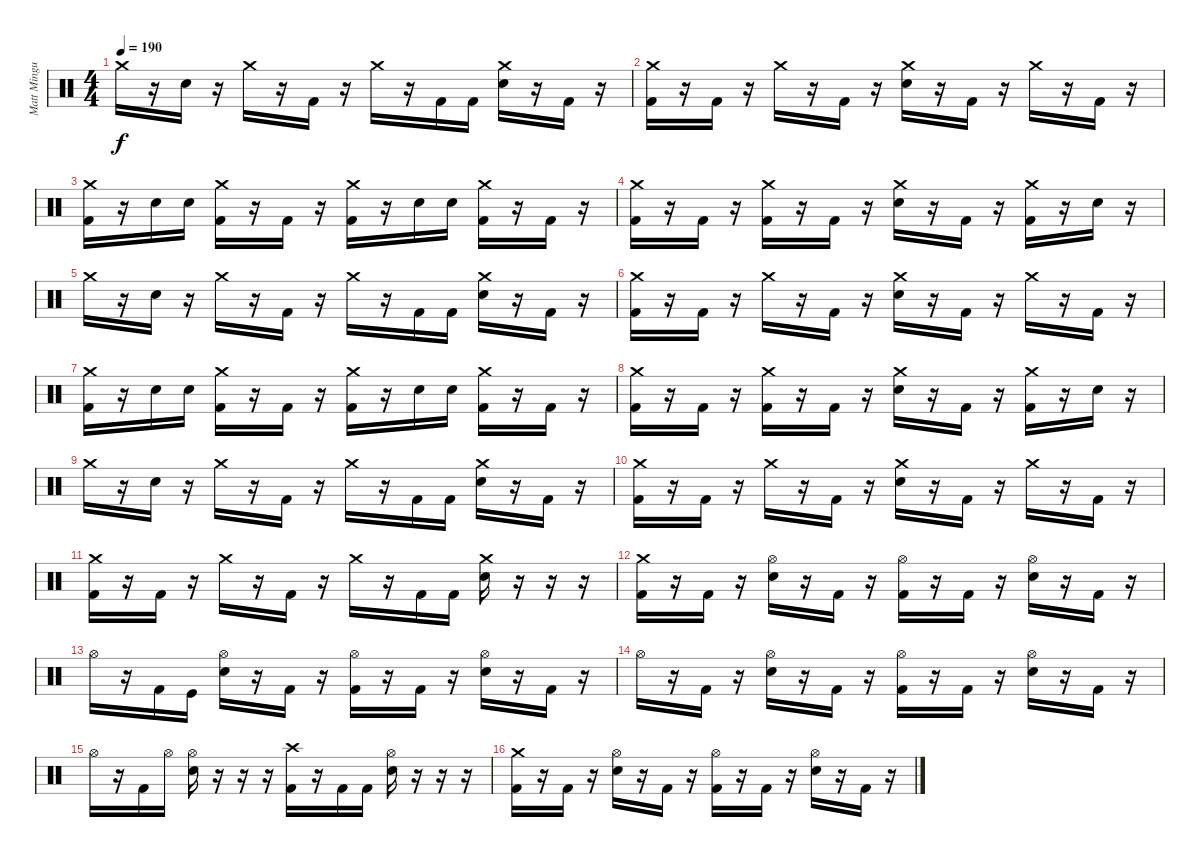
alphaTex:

\track ("Matt Mingus" "Matt Mingu") {instrument percussion}
\staff {score}
\articulation defaults
\ts (4 4)
\tempo 190
\clef neutral
\ks c "Crash medium (hit)".16{dy f}
r.16 "Electric Snare (hit)".16 r.16 "Crash medium (hit)".16 r.16 "Kick (hit) 2".16 r.16 "Crash medium (hit)".16 r.16 "Kick (hit) 2".16 "Kick (hit) 2".16 ("Crash medium (hit)" "Electric Snare (hit)").16 r.16 "Kick (hit) 2".16 r.16 |
("Crash medium (hit)" "Kick (hit) 2").16 r.16 "Kick (hit) 2".16 r.16 "Crash medium (hit)".16 r.16 "Kick (hit) 2".16 r.16 ("Crash medium (hit)" "Electric Snare (hit)").16 r.16 "Kick (hit) 2".16 r.16 "Crash medium (hit)".16 r.16 "Kick (hit) 2".16 r.16 |
("Crash medium (hit)" "Kick (hit) 2").16 r.16 "Electric Snare (hit)".16 "Electric Snare (hit)".16 ("Crash medium (hit)" "Kick (hit) 2").16 r.16 "Kick (hit) 2".16 r.16 ("Crash medium (hit)" "Kick (hit) 2").16 r.16 "Electric Snare (hit)".16 "Electric Snare (hit)".16 ("Crash medium (hit)" "Kick (hit) 2").16 r.16 "Kick (hit) 2".16 r.16 |
("Crash medium (hit)" "Kick (hit) 2").16 r.16 "Kick (hit) 2".16 r.16 ("Crash medium (hit)" "Kick (hit) 2").16 r.16 "Kick (hit) 2".16 r.16 ("Crash medium (hit)" "Electric Snare (hit)").16 r.16 "Kick (hit) 2".16 r.16 ("Crash medium (hit)" "Kick (hit) 2").16 r.16 "Electric Snare (hit)".16 r.16 |
"Crash medium (hit)".16 r.16 "Electric Snare (hit)".16 r.16 "Crash medium (hit)".16 r.16 "Kick (hit) 2".16 r.16 "Crash medium (hit)".16 r.16 "Kick (hit) 2".16 "Kick (hit) 2".16 ("Crash medium (hit)" "Electric Snare (hit)").16 r.16 "Kick (hit) 2".16 r.16 |
("Crash medium (hit)" "Kick (hit) 2").16 r.16 "Kick (hit) 2".16 r.16 "Crash medium (hit)".16 r.16 "Kick (hit) 2".16 r.16 ("Crash medium (hit)" "Electric Snare (hit)").16 r.16 "Kick (hit) 2".16 r.16 "Crash medium (hit)".16 r.16 "Kick (hit) 2".16 r.16 |
("Crash medium (hit)" "Kick (hit) 2").16 r.16 "Electric Snare (hit)".16 "Electric Snare (hit)".16 ("Crash medium (hit)" "Kick (hit) 2").16 r.16 "Kick (hit) 2".16 r.16 ("Crash medium (hit)" "Kick (hit) 2").16 r.16 "Electric Snare (hit)".16 "Electric Snare (hit)".16 ("Crash medium (hit)" "Kick (hit) 2").16 r.16 "Kick (hit) 2".16 r.16 |
("Crash medium (hit)" "Kick (hit) 2").16 r.16 "Kick (hit) 2".16 r.16 ("Crash medium (hit)" "Kick (hit) 2").16 r.16 "Kick (hit) 2".16 r.16 ("Crash medium (hit)" "Electric Snare (hit)").16 r.16 "Kick (hit) 2".16 r.16 ("Crash medium (hit)" "Kick (hit) 2").16 r.16 "Electric Snare (hit)".16 r.16 |
"Crash medium (hit)".16 r.16 "Electric Snare (hit)".16 r.16 "Crash medium (hit)".16 r.16 "Kick (hit) 2".16 r.16 "Crash medium (hit)".16 r.16 "Kick (hit) 2".16 "Kick (hit) 2".16 ("Crash medium (hit)" "Electric Snare (hit)").16 r.16 "Kick (hit) 2".16 r.16 |
("Crash medium (hit)" "Kick (hit) 2").16 r.16 "Kick (hit) 2".16 r.16 "Crash medium (hit)".16 r.16 "Kick (hit) 2".16 r.16 ("Crash medium (hit)" "Electric Snare (hit)").16 r.16 "Kick (hit) 2".16 r.16 "Crash medium (hit)".16 r.16 "Kick (hit) 2".16 r.16 |
("Crash medium (hit)" "Kick (hit) 2").16 r.16 "Kick (hit) 2".16 r.16 "Crash medium (hit)".16 r.16 "Kick (hit) 2".16 r.16 "Crash medium (hit)".16 r.16 "Kick (hit) 2".16 "Kick (hit) 2".16 ("Crash medium (hit)" "Electric Snare (hit)").16 r.16 r.16 r.16 |
("Crash medium (hit)" "Kick (hit) 2").16 r.16 "Kick (hit) 2".16 r.16 ("Hi-Hat (open)" "Electric Snare (hit)").16 r.16 "Kick (hit) 2".16 r.16 ("Hi-Hat (open)" "Kick (hit) 2").16 r.16 "Kick (hit) 2".16 r.16 ("Hi-Hat (open)" "Electric Snare (hit)").16 r.16 "Kick (hit) 2".16 r.16 |
"Hi-Hat (open)".16 r.16 "Kick (hit) 2".16 "Kick (hit)".16 ("Hi-Hat (open)" "Electric Snare (hit)").16 r.16 "Kick (hit) 2".16 r.16 ("Hi-Hat (open)" "Kick (hit) 2").16 r.16 "Kick (hit) 2".16 r.16 ("Hi-Hat (open)" "Electric Snare (hit)").16 r.16 "Kick (hit) 2".16 r.16 |
"Hi-Hat (open)".16 r.16 "Kick (hit) 2".16 r.16 ("Hi-Hat (open)" "Electric Snare (hit)").16 r.16 "Kick (hit) 2".16 r.16 ("Hi-Hat (open)" "Kick (hit) 2").16 r.16 "Kick (hit) 2".16 r.16 ("Hi-Hat (open)" "Electric Snare (hit)").16 r.16 "Kick (hit) 2".16 r.16 |
"Hi-Hat (open)".16 r.16 "Kick (hit) 2".16 "Hi-Hat (open)".16 ("Hi-Hat (open)" "Electric Snare (hit)").16 r.16 r.16 r.16 ("Crash high (hit)" "Kick (hit) 2").16 r.16 "Kick (hit) 2".16 "Kick (hit) 2".16 ("Hi-Hat (open)" "Electric Snare (hit)").16 r.16 r.16 r.16 |
("Crash medium (hit)" "Kick (hit) 2").16 r.16 "Kick (hit) 2".16 r.16 ("Hi-Hat (open)" "Electric Snare (hit)").16 r.16 "Kick (hit) 2".16 r.16 ("Hi-Hat (open)" "Kick (hit) 2").16 r.16 "Kick (hit) 2".16 r.16 ("Hi-Hat (open)" "Electric Snare (hit)").16 r.16 "Kick (hit) 2".16 r.16
